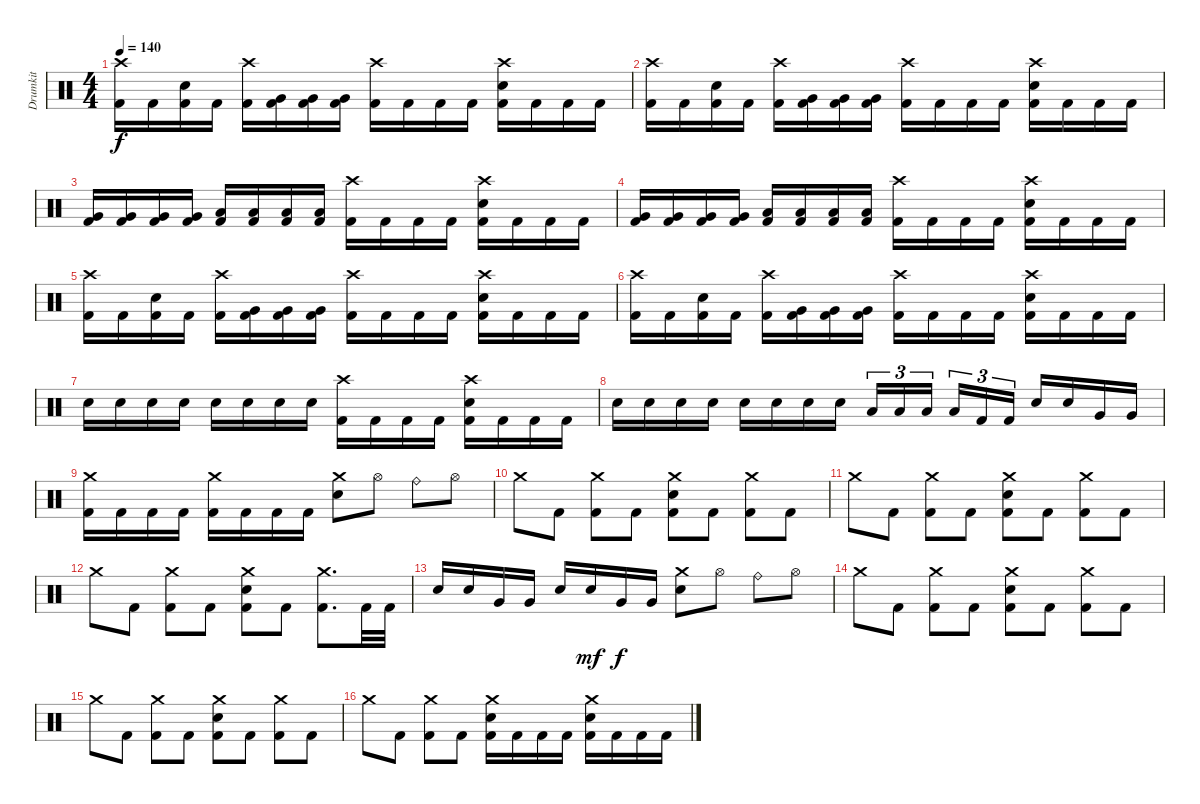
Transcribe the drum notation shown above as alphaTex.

\track ("Drumkit" "Drumkit") {instrument percussion}
\staff {score}
\articulation defaults
\ts (4 4)
\tempo 140
\clef neutral
\ks c
("Crash high (hit)" "Kick (hit) 2").16{dy f} "Kick (hit) 2".16 ("Electric Snare (hit)" "Kick (hit) 2").16 "Kick (hit) 2".16 ("Crash high (hit)" "Kick (hit) 2").16 ("Very Low Tom (hit)" "Kick (hit) 2").16 ("Very Low Tom (hit)" "Kick (hit) 2").16 ("Very Low Tom (hit)" "Kick (hit) 2").16 ("Crash high (hit)" "Kick (hit) 2").16 "Kick (hit) 2".16 "Kick (hit) 2".16 "Kick (hit) 2".16 ("Crash high (hit)" "Electric Snare (hit)" "Kick (hit) 2").16 "Kick (hit) 2".16 "Kick (hit) 2".16 "Kick (hit) 2".16 |
("Crash high (hit)" "Kick (hit) 2").16 "Kick (hit) 2".16 ("Electric Snare (hit)" "Kick (hit) 2").16 "Kick (hit) 2".16 ("Crash high (hit)" "Kick (hit) 2").16 ("Very Low Tom (hit)" "Kick (hit) 2").16 ("Very Low Tom (hit)" "Kick (hit) 2").16 ("Very Low Tom (hit)" "Kick (hit) 2").16 ("Crash high (hit)" "Kick (hit) 2").16 "Kick (hit) 2".16 "Kick (hit) 2".16 "Kick (hit) 2".16 ("Crash high (hit)" "Electric Snare (hit)" "Kick (hit) 2").16 "Kick (hit) 2".16 "Kick (hit) 2".16 "Kick (hit) 2".16 |
("Very Low Tom (hit)" "Kick (hit) 2").16 ("Very Low Tom (hit)" "Kick (hit) 2").16 ("Very Low Tom (hit)" "Kick (hit) 2").16 ("Very Low Tom (hit)" "Kick (hit) 2").16 ("Low Floor Tom (hit)" "Kick (hit) 2").16 ("Low Floor Tom (hit)" "Kick (hit) 2").16 ("Low Floor Tom (hit)" "Kick (hit) 2").16 ("Low Floor Tom (hit)" "Kick (hit) 2").16 ("Crash high (hit)" "Kick (hit) 2").16 "Kick (hit) 2".16 "Kick (hit) 2".16 "Kick (hit) 2".16 ("Crash high (hit)" "Electric Snare (hit)" "Kick (hit) 2").16 "Kick (hit) 2".16 "Kick (hit) 2".16 "Kick (hit) 2".16 |
("Very Low Tom (hit)" "Kick (hit) 2").16 ("Very Low Tom (hit)" "Kick (hit) 2").16 ("Very Low Tom (hit)" "Kick (hit) 2").16 ("Very Low Tom (hit)" "Kick (hit) 2").16 ("Low Floor Tom (hit)" "Kick (hit) 2").16 ("Low Floor Tom (hit)" "Kick (hit) 2").16 ("Low Floor Tom (hit)" "Kick (hit) 2").16 ("Low Floor Tom (hit)" "Kick (hit) 2").16 ("Crash high (hit)" "Kick (hit) 2").16 "Kick (hit) 2".16 "Kick (hit) 2".16 "Kick (hit) 2".16 ("Crash high (hit)" "Electric Snare (hit)" "Kick (hit) 2").16 "Kick (hit) 2".16 "Kick (hit) 2".16 "Kick (hit) 2".16 |
("Crash high (hit)" "Kick (hit) 2").16 "Kick (hit) 2".16 ("Electric Snare (hit)" "Kick (hit) 2").16 "Kick (hit) 2".16 ("Crash high (hit)" "Kick (hit) 2").16 ("Very Low Tom (hit)" "Kick (hit) 2").16 ("Very Low Tom (hit)" "Kick (hit) 2").16 ("Very Low Tom (hit)" "Kick (hit) 2").16 ("Crash high (hit)" "Kick (hit) 2").16 "Kick (hit) 2".16 "Kick (hit) 2".16 "Kick (hit) 2".16 ("Crash high (hit)" "Electric Snare (hit)" "Kick (hit) 2").16 "Kick (hit) 2".16 "Kick (hit) 2".16 "Kick (hit) 2".16 |
("Crash high (hit)" "Kick (hit) 2").16 "Kick (hit) 2".16 ("Electric Snare (hit)" "Kick (hit) 2").16 "Kick (hit) 2".16 ("Crash high (hit)" "Kick (hit) 2").16 ("Very Low Tom (hit)" "Kick (hit) 2").16 ("Very Low Tom (hit)" "Kick (hit) 2").16 ("Very Low Tom (hit)" "Kick (hit) 2").16 ("Crash high (hit)" "Kick (hit) 2").16 "Kick (hit) 2".16 "Kick (hit) 2".16 "Kick (hit) 2".16 ("Crash high (hit)" "Electric Snare (hit)" "Kick (hit) 2").16 "Kick (hit) 2".16 "Kick (hit) 2".16 "Kick (hit) 2".16 |
"Electric Snare (hit)".16 "Electric Snare (hit)".16 "Electric Snare (hit)".16 "Electric Snare (hit)".16 "Electric Snare (hit)".16 "Electric Snare (hit)".16 "Electric Snare (hit)".16 "Electric Snare (hit)".16 ("Crash high (hit)" "Kick (hit) 2").16 "Kick (hit) 2".16 "Kick (hit) 2".16 "Kick (hit) 2".16 ("Crash high (hit)" "Electric Snare (hit)" "Kick (hit) 2").16 "Kick (hit) 2".16 "Kick (hit) 2".16 "Kick (hit) 2".16 |
"Electric Snare (hit)".16 "Electric Snare (hit)".16 "Electric Snare (hit)".16 "Electric Snare (hit)".16 "Electric Snare (hit)".16 "Electric Snare (hit)".16 "Electric Snare (hit)".16 "Electric Snare (hit)".16 "Low Floor Tom (hit)".16{tu (3 2)} "Low Floor Tom (hit)".16{tu (3 2)} "Low Floor Tom (hit)".16{tu (3 2) beam splitsecondary} "Low Floor Tom (hit)".16{tu (3 2)} "Kick (hit) 2".16{tu (3 2)} "Kick (hit) 2".16{tu (3 2)} "Electric Snare (hit)".16 "Electric Snare (hit)".16 "Very Low Tom (hit)".16 "Very Low Tom (hit)".16 |
("Crash medium (hit)" "Kick (hit) 2").16 "Kick (hit) 2".16 "Kick (hit) 2".16 "Kick (hit) 2".16 ("Crash medium (hit)" "Kick (hit) 2").16 "Kick (hit) 2".16 "Kick (hit) 2".16 "Kick (hit) 2".16 ("Crash medium (hit)" "Electric Snare (hit)").8 "Hi-Hat (open)".8 "Ride (bell)".8 "Hi-Hat (open)".8 |
"Crash medium (hit)".8 "Kick (hit) 2".8 ("Crash medium (hit)" "Kick (hit) 2").8 "Kick (hit) 2".8 ("Crash medium (hit)" "Electric Snare (hit)" "Kick (hit) 2").8 "Kick (hit) 2".8 ("Crash medium (hit)" "Kick (hit) 2").8 "Kick (hit) 2".8 |
"Crash medium (hit)".8 "Kick (hit) 2".8 ("Crash medium (hit)" "Kick (hit) 2").8 "Kick (hit) 2".8 ("Crash medium (hit)" "Electric Snare (hit)" "Kick (hit) 2").8 "Kick (hit) 2".8 ("Crash medium (hit)" "Kick (hit) 2").8 "Kick (hit) 2".8 |
"Crash medium (hit)".8 "Kick (hit) 2".8 ("Crash medium (hit)" "Kick (hit) 2").8 "Kick (hit) 2".8 ("Crash medium (hit)" "Electric Snare (hit)" "Kick (hit) 2").8 "Kick (hit) 2".8 ("Crash medium (hit)" "Kick (hit) 2").8{d} "Kick (hit) 2".32 "Kick (hit) 2".32 |
"Electric Snare (hit)".16 "Electric Snare (hit)".16 "Very Low Tom (hit)".16 "Very Low Tom (hit)".16 "Electric Snare (hit)".16 "Electric Snare (hit)".16{dy mf} "Very Low Tom (hit)".16{dy f} "Very Low Tom (hit)".16 ("Crash medium (hit)" "Electric Snare (hit)").8 "Hi-Hat (open)".8 "Ride (bell)".8 "Hi-Hat (open)".8 |
"Crash medium (hit)".8 "Kick (hit) 2".8 ("Crash medium (hit)" "Kick (hit) 2").8 "Kick (hit) 2".8 ("Crash medium (hit)" "Electric Snare (hit)" "Kick (hit) 2").8 "Kick (hit) 2".8 ("Crash medium (hit)" "Kick (hit) 2").8 "Kick (hit) 2".8 |
"Crash medium (hit)".8 "Kick (hit) 2".8 ("Crash medium (hit)" "Kick (hit) 2").8 "Kick (hit) 2".8 ("Crash medium (hit)" "Electric Snare (hit)" "Kick (hit) 2").8 "Kick (hit) 2".8 ("Crash medium (hit)" "Kick (hit) 2").8 "Kick (hit) 2".8 |
"Crash medium (hit)".8 "Kick (hit) 2".8 ("Crash medium (hit)" "Kick (hit) 2").8 "Kick (hit) 2".8 ("Crash medium (hit)" "Electric Snare (hit)" "Kick (hit) 2").16 "Kick (hit) 2".16 "Kick (hit) 2".16 "Kick (hit) 2".16 ("Crash medium (hit)" "Electric Snare (hit)" "Kick (hit) 2").16 "Kick (hit) 2".16 "Kick (hit) 2".16 "Kick (hit) 2".16
